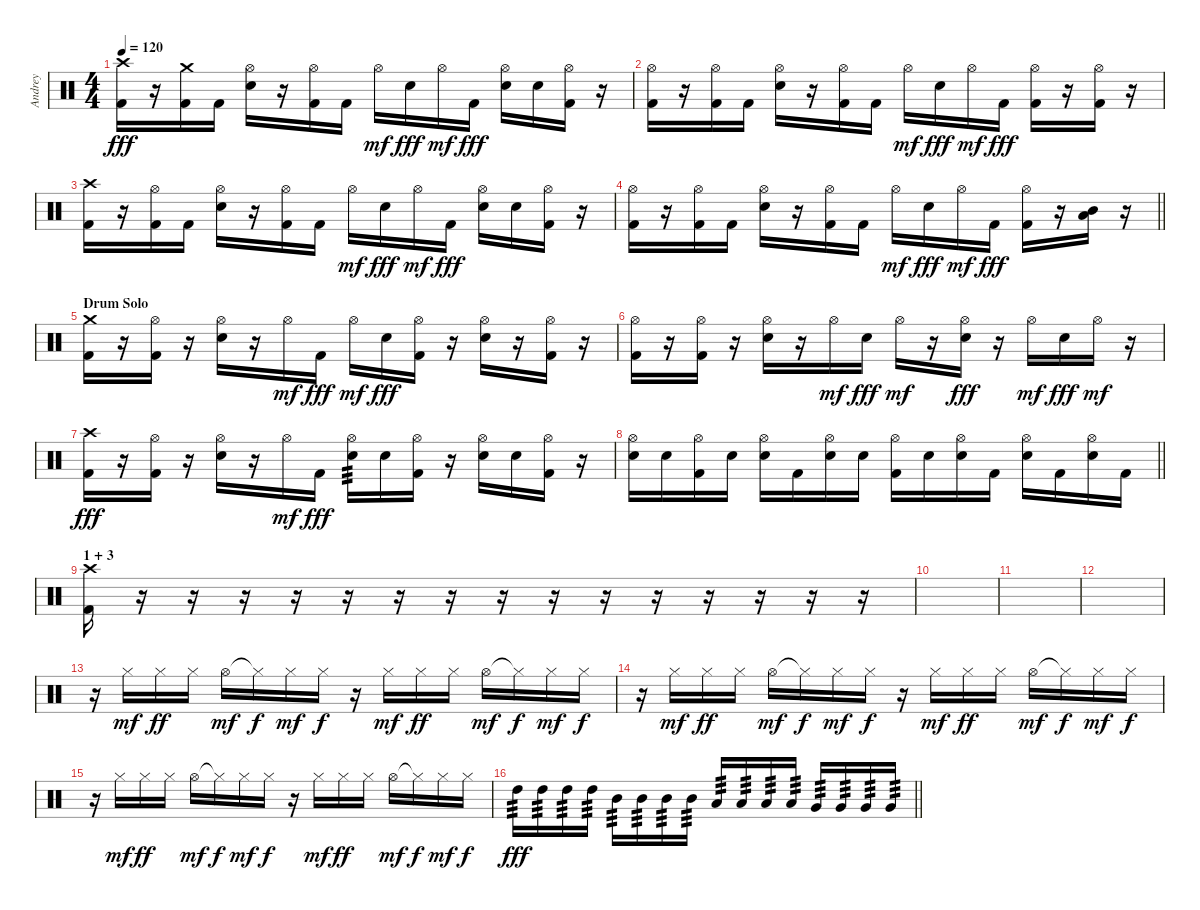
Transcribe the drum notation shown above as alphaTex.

\track ("Andrey" "Andrey") {instrument percussion}
\staff {score}
\articulation defaults
\ts (4 4)
\tempo 120
\clef neutral
\ks c
("Crash high (hit)" "Kick (hit) 2").16{dy fff} r.16 ("Crash medium (hit)" "Kick (hit) 2").16 "Kick (hit) 2".16 ("Hi-Hat (open)" "Snare (hit) 2").16 r.16 ("Hi-Hat (open)" "Kick (hit) 2").16 "Kick (hit) 2".16 "Hi-Hat (open)".16{dy mf} "Snare (hit) 2".16{dy fff} "Hi-Hat (open)".16{dy mf} "Kick (hit) 2".16{dy fff} ("Hi-Hat (open)" "Snare (hit) 2").16 "Snare (hit) 2".16 ("Hi-Hat (open)" "Kick (hit) 2").16 r.16 |
("Hi-Hat (open)" "Kick (hit) 2").16 r.16 ("Hi-Hat (open)" "Kick (hit) 2").16 "Kick (hit) 2".16 ("Hi-Hat (open)" "Snare (hit) 2").16 r.16 ("Hi-Hat (open)" "Kick (hit) 2").16 "Kick (hit) 2".16 "Hi-Hat (open)".16{dy mf} "Snare (hit) 2".16{dy fff} "Hi-Hat (open)".16{dy mf} "Kick (hit) 2".16{dy fff} ("Hi-Hat (open)" "Kick (hit) 2").16 r.16 ("Hi-Hat (open)" "Kick (hit) 2").16 r.16 |
("Crash high (hit)" "Kick (hit) 2").16 r.16 ("Hi-Hat (open)" "Kick (hit) 2").16 "Kick (hit) 2".16 ("Hi-Hat (open)" "Snare (hit) 2").16 r.16 ("Hi-Hat (open)" "Kick (hit) 2").16 "Kick (hit) 2".16 "Hi-Hat (open)".16{dy mf} "Snare (hit) 2".16{dy fff} "Hi-Hat (open)".16{dy mf} "Kick (hit) 2".16{dy fff} ("Hi-Hat (open)" "Snare (hit) 2").16 "Snare (hit) 2".16 ("Hi-Hat (open)" "Kick (hit) 2").16 r.16 |
\barLineRight lightlight
("Hi-Hat (open)" "Kick (hit) 2").16 r.16 ("Hi-Hat (open)" "Kick (hit) 2").16 "Kick (hit) 2".16 ("Hi-Hat (open)" "Snare (hit) 2").16 r.16 ("Hi-Hat (open)" "Kick (hit) 2").16 "Kick (hit) 2".16 "Hi-Hat (open)".16{dy mf} "Snare (hit) 2".16{dy fff} "Hi-Hat (open)".16{dy mf} "Kick (hit) 2".16{dy fff} ("Hi-Hat (open)" "Kick (hit) 2").16 r.16 ("Low Tom (hit)" "Mid Tom (hit)").16 r.16 |
\section ("" "Drum Solo")
("Crash medium (hit)" "Kick (hit) 2").16 r.16 ("Hi-Hat (open)" "Kick (hit) 2").16 r.16 ("Hi-Hat (open)" "Snare (hit) 2").16 r.16 "Hi-Hat (open)".16{dy mf} "Kick (hit) 2".16{dy fff} "Hi-Hat (open)".16{dy mf} "Snare (hit) 2".16{dy fff} ("Hi-Hat (open)" "Kick (hit) 2").16 r.16 ("Hi-Hat (open)" "Snare (hit) 2").16 r.16 ("Hi-Hat (open)" "Kick (hit) 2").16 r.16 |
("Hi-Hat (open)" "Kick (hit) 2").16 r.16 ("Hi-Hat (open)" "Kick (hit) 2").16 r.16 ("Hi-Hat (open)" "Snare (hit) 2").16 r.16 "Hi-Hat (open)".16{dy mf} "Snare (hit) 2".16{dy fff} "Hi-Hat (open)".16{dy mf} r.16 ("Hi-Hat (open)" "Snare (hit) 2").16{dy fff} r.16 "Hi-Hat (open)".16{dy mf} "Snare (hit) 2".16{dy fff} "Hi-Hat (open)".16{dy mf} r.16 |
("Crash high (hit)" "Kick (hit) 2").16{dy fff} r.16 ("Hi-Hat (open)" "Kick (hit) 2").16 r.16 ("Hi-Hat (open)" "Snare (hit) 2").16 r.16 "Hi-Hat (open)".16{dy mf} "Kick (hit) 2".16{dy fff} ("Hi-Hat (open)" "Snare (hit) 2").16{tp 3} "Snare (hit) 2".16 ("Hi-Hat (open)" "Kick (hit) 2").16 r.16 ("Hi-Hat (open)" "Snare (hit) 2").16 "Snare (hit) 2".16 ("Hi-Hat (open)" "Kick (hit) 2").16 r.16 |
\barLineRight lightlight
("Hi-Hat (open)" "Snare (hit) 2").16 "Snare (hit) 2".16 ("Hi-Hat (open)" "Kick (hit) 2").16 "Snare (hit) 2".16 ("Hi-Hat (open)" "Snare (hit) 2").16 "Kick (hit) 2".16 ("Hi-Hat (open)" "Snare (hit) 2").16 "Snare (hit) 2".16 ("Hi-Hat (open)" "Kick (hit) 2").16 "Snare (hit) 2".16 ("Hi-Hat (open)" "Snare (hit) 2").16 "Kick (hit) 2".16 ("Hi-Hat (open)" "Snare (hit) 2").16 "Kick (hit) 2".16 ("Hi-Hat (open)" "Snare (hit) 2").16 "Kick (hit) 2".16 |
\section ("" "1 + 3")
("Crash high (hit)" "Kick (hit) 2").16 r.16 r.16{volume 0} r.16 r.16 r.16 r.16 r.16 r.16 r.16 r.16 r.16 r.16 r.16 r.16 r.16 |
|
|
|
r.16{volume 16} "Hi-Hat (closed)".16{dy mf} "Hi-Hat (closed)".16{dy ff} "Hi-Hat (closed)".16 "Hi-Hat (open)".16{dy mf} "Hi-Hat (closed)"{t}.16{dy f} "Hi-Hat (closed)".16{dy mf} "Hi-Hat (closed)".16{dy f} r.16 "Hi-Hat (closed)".16{dy mf} "Hi-Hat (closed)".16{dy ff} "Hi-Hat (closed)".16 "Hi-Hat (open)".16{dy mf} "Hi-Hat (closed)"{t}.16{dy f} "Hi-Hat (closed)".16{dy mf} "Hi-Hat (closed)".16{dy f} |
r.16 "Hi-Hat (closed)".16{dy mf} "Hi-Hat (closed)".16{dy ff} "Hi-Hat (closed)".16 "Hi-Hat (open)".16{dy mf} "Hi-Hat (closed)"{t}.16{dy f} "Hi-Hat (closed)".16{dy mf} "Hi-Hat (closed)".16{dy f} r.16 "Hi-Hat (closed)".16{dy mf} "Hi-Hat (closed)".16{dy ff} "Hi-Hat (closed)".16 "Hi-Hat (open)".16{dy mf} "Hi-Hat (closed)"{t}.16{dy f} "Hi-Hat (closed)".16{dy mf} "Hi-Hat (closed)".16{dy f} |
r.16 "Hi-Hat (closed)".16{dy mf} "Hi-Hat (closed)".16{dy ff} "Hi-Hat (closed)".16 "Hi-Hat (open)".16{dy mf} "Hi-Hat (closed)"{t}.16{dy f} "Hi-Hat (closed)".16{dy mf} "Hi-Hat (closed)".16{dy f} r.16 "Hi-Hat (closed)".16{dy mf} "Hi-Hat (closed)".16{dy ff} "Hi-Hat (closed)".16 "Hi-Hat (open)".16{dy mf} "Hi-Hat (closed)"{t}.16{dy f} "Hi-Hat (closed)".16{dy mf} "Hi-Hat (closed)".16{dy f} |
\barLineRight lightlight "High Tom (hit)".16{tp 3 dy fff} "High Tom (hit)".16{tp 3} "High Tom (hit)".16{tp 3} "High Tom (hit)".16{tp 3} "Mid Tom (hit)".16{tp 3} "Mid Tom (hit)".16{tp 3} "Mid Tom (hit)".16{tp 3} "Mid Tom (hit)".16{tp 3} "Low Tom (hit)".16{tp 3} "Low Tom (hit)".16{tp 3} "Low Tom (hit)".16{tp 3} "Low Tom (hit)".16{tp 3} "Very Low Tom (hit)".16{tp 3} "Very Low Tom (hit)".16{tp 3} "Very Low Tom (hit)".16{tp 3} "Very Low Tom (hit)".16{tp 3}
